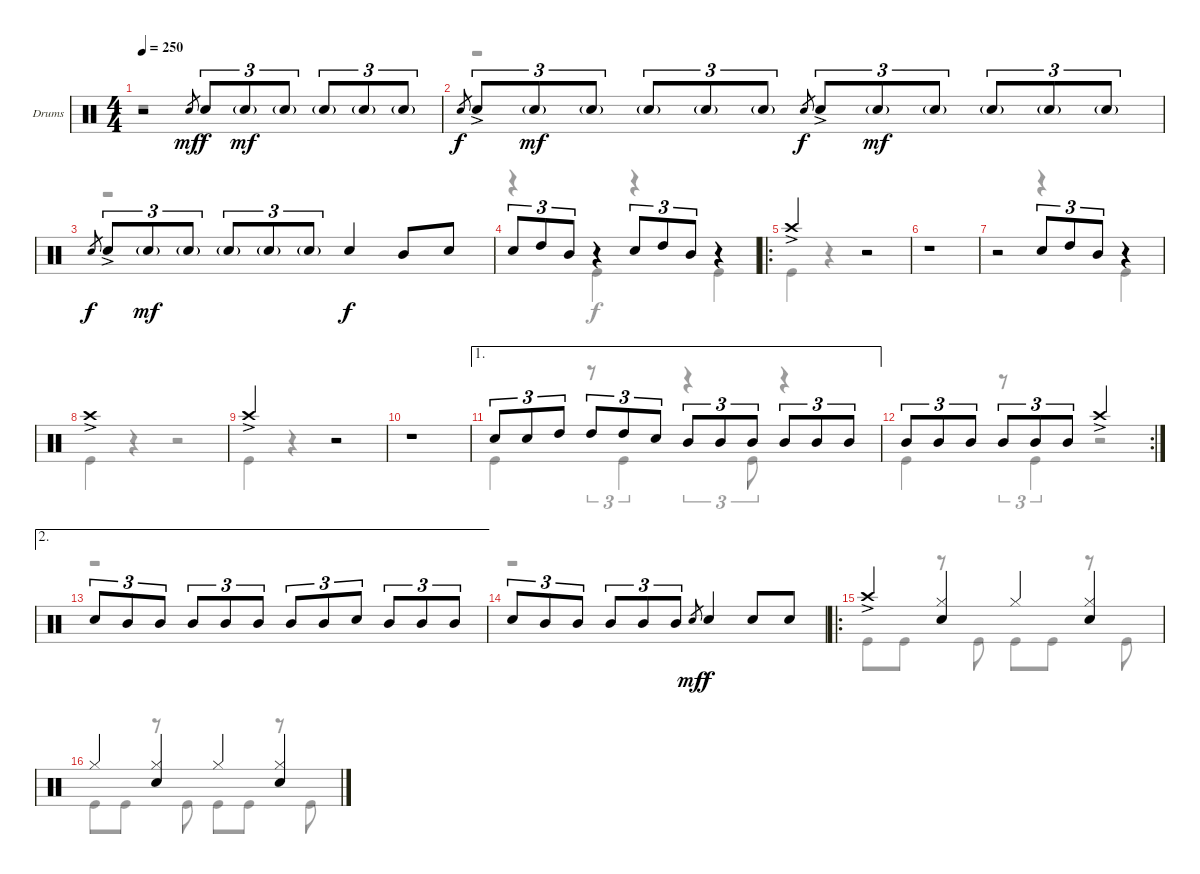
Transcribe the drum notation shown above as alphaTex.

\bracketExtendMode groupsimilarinstruments
\firstSystemTrackNameOrientation horizontal
\otherSystemsTrackNameOrientation horizontal
\track ("Drumkit" "Drums") {instrument percussion}
\staff {score}
\articulation defaults
\voice
\ts (4 4)
\beaming (8 2 2 2 2)
\tempo 250
\clef neutral
\ks c
r.2{dy mf} "Snare (hit) 2".8{gr} "Snare (hit) 2".8{tu (3 2) dy f} "Snare (hit) 2"{g}.8{tu (3 2) dy mf} "Snare (hit) 2"{g}.8{tu (3 2)} "Snare (hit) 2"{g}.8{tu (3 2)} "Snare (hit) 2"{g}.8{tu (3 2)} "Snare (hit) 2"{g}.8{tu (3 2)} |
"Snare (hit) 2".8{gr dy f} "Snare (hit) 2"{ac}.8{tu (3 2)} "Snare (hit) 2"{g}.8{tu (3 2) dy mf} "Snare (hit) 2"{g}.8{tu (3 2)} "Snare (hit) 2"{g}.8{tu (3 2)} "Snare (hit) 2"{g}.8{tu (3 2)} "Snare (hit) 2"{g}.8{tu (3 2)} "Snare (hit) 2".8{gr dy f} "Snare (hit) 2"{ac}.8{tu (3 2)} "Snare (hit) 2"{g}.8{tu (3 2) dy mf} "Snare (hit) 2"{g}.8{tu (3 2)} "Snare (hit) 2"{g}.8{tu (3 2)} "Snare (hit) 2"{g}.8{tu (3 2)} "Snare (hit) 2"{g}.8{tu (3 2)} |
"Snare (hit) 2".8{gr dy f} "Snare (hit) 2"{ac}.8{tu (3 2)} "Snare (hit) 2"{g}.8{tu (3 2) dy mf} "Snare (hit) 2"{g}.8{tu (3 2)} "Snare (hit) 2"{g}.8{tu (3 2)} "Snare (hit) 2"{g}.8{tu (3 2)} "Snare (hit) 2"{g}.8{tu (3 2)} "Snare (hit) 2".4{dy f} "Mid Tom (hit)".8 "Snare (hit) 2".8 |
"Snare (hit) 2".8{tu (3 2)} "High Tom (hit)".8{tu (3 2)} "Mid Tom (hit)".8{tu (3 2)} r.4 "Snare (hit) 2".8{tu (3 2)} "High Tom (hit)".8{tu (3 2)} "Mid Tom (hit)".8{tu (3 2)} r.4 |
\ro "Crash high (hit)"{ac}.2
r.2 |
r.1 |
r.2 "Snare (hit) 2".8{tu (3 2)} "High Tom (hit)".8{tu (3 2)} "Mid Tom (hit)".8{tu (3 2)} r.4 |
"Crash high (hit)"{ac}.1 |
"Crash high (hit)"{ac}.2 r.2 |
r.1 |
\ae 1 "Snare (hit) 2".8{tu (3 2)} "Snare (hit) 2".8{tu (3 2)} "High Tom (hit)".8{tu (3 2)} "High Tom (hit)".8{tu (3 2)} "High Tom (hit)".8{tu (3 2)} "Snare (hit) 2".8{tu (3 2)} "Mid Tom (hit)".8{tu (3 2)} "Mid Tom (hit)".8{tu (3 2)} "Mid Tom (hit)".8{tu (3 2)} "Mid Tom (hit)".8{tu (3 2)} "Mid Tom (hit)".8{tu (3 2)} "Mid Tom (hit)".8{tu (3 2)}
|
\rc 2 "Mid Tom (hit)".8{tu (3 2)} "Mid Tom (hit)".8{tu (3 2)} "Mid Tom (hit)".8{tu (3 2)} "Mid Tom (hit)".8{tu (3 2)} "Mid Tom (hit)".8{tu (3 2)} "Mid Tom (hit)".8{tu (3 2)} "Crash high (hit)"{ac}.2
|
\ae 2 "Snare (hit) 2".8{tu (3 2)} "Mid Tom (hit)".8{tu (3 2)} "Mid Tom (hit)".8{tu (3 2)} "Mid Tom (hit)".8{tu (3 2)} "Mid Tom (hit)".8{tu (3 2)} "Mid Tom (hit)".8{tu (3 2)} "Mid Tom (hit)".8{tu (3 2)} "Mid Tom (hit)".8{tu (3 2)} "Snare (hit) 2".8{tu (3 2)} "Mid Tom (hit)".8{tu (3 2)} "Mid Tom (hit)".8{tu (3 2)} "Mid Tom (hit)".8{tu (3 2)}
|
"Snare (hit) 2".8{tu (3 2)} "Mid Tom (hit)".8{tu (3 2)} "Mid Tom (hit)".8{tu (3 2)} "Mid Tom (hit)".8{tu (3 2)} "Mid Tom (hit)".8{tu (3 2)} "Mid Tom (hit)".8{tu (3 2)} "Snare (hit) 2".8{gr dy mf} "Snare (hit) 2".4{dy f} "Snare (hit) 2".8 "Snare (hit) 2".8 |
\ro "Crash high (hit)"{ac}.4
("Hi-Hat (closed)" "Snare (hit) 2").4 "Hi-Hat (closed)".4 ("Hi-Hat (closed)" "Snare (hit) 2").4 |
"Hi-Hat (closed)".4 ("Hi-Hat (closed)" "Snare (hit) 2").4 "Hi-Hat (closed)".4 ("Hi-Hat (closed)" "Snare (hit) 2").4
\voice
\clef neutral
\ottava regular
\simile none
\ks c
r.1{dy f} |
r.1 |
r.1 |
r.4 "Kick (hit)".4 r.4 "Kick (hit)".4 |
"Kick (hit)".4 r.4 r.2 |
r.1 |
r.2 r.4 "Kick (hit)".4 |
"Kick (hit)".4 r.4 r.2 |
"Kick (hit)".4 r.4 r.2 |
r.1 |
"Kick (hit)".4 r.8{tu (3 2)} "Kick (hit)".4{tu (3 2)} r.4{tu (3 2)} "Kick (hit)".8{tu (3 2)} r.4 |
"Kick (hit)".4 r.8{tu (3 2)} "Kick (hit)".4{tu (3 2)} r.2 |
r.1 |
r.1 |
"Kick (hit)".8 "Kick (hit)".8 r.8 "Kick (hit)".8 "Kick (hit)".8 "Kick (hit)".8 r.8 "Kick (hit)".8 |
"Kick (hit)".8 "Kick (hit)".8 r.8 "Kick (hit)".8 "Kick (hit)".8 "Kick (hit)".8 r.8 "Kick (hit)".8
